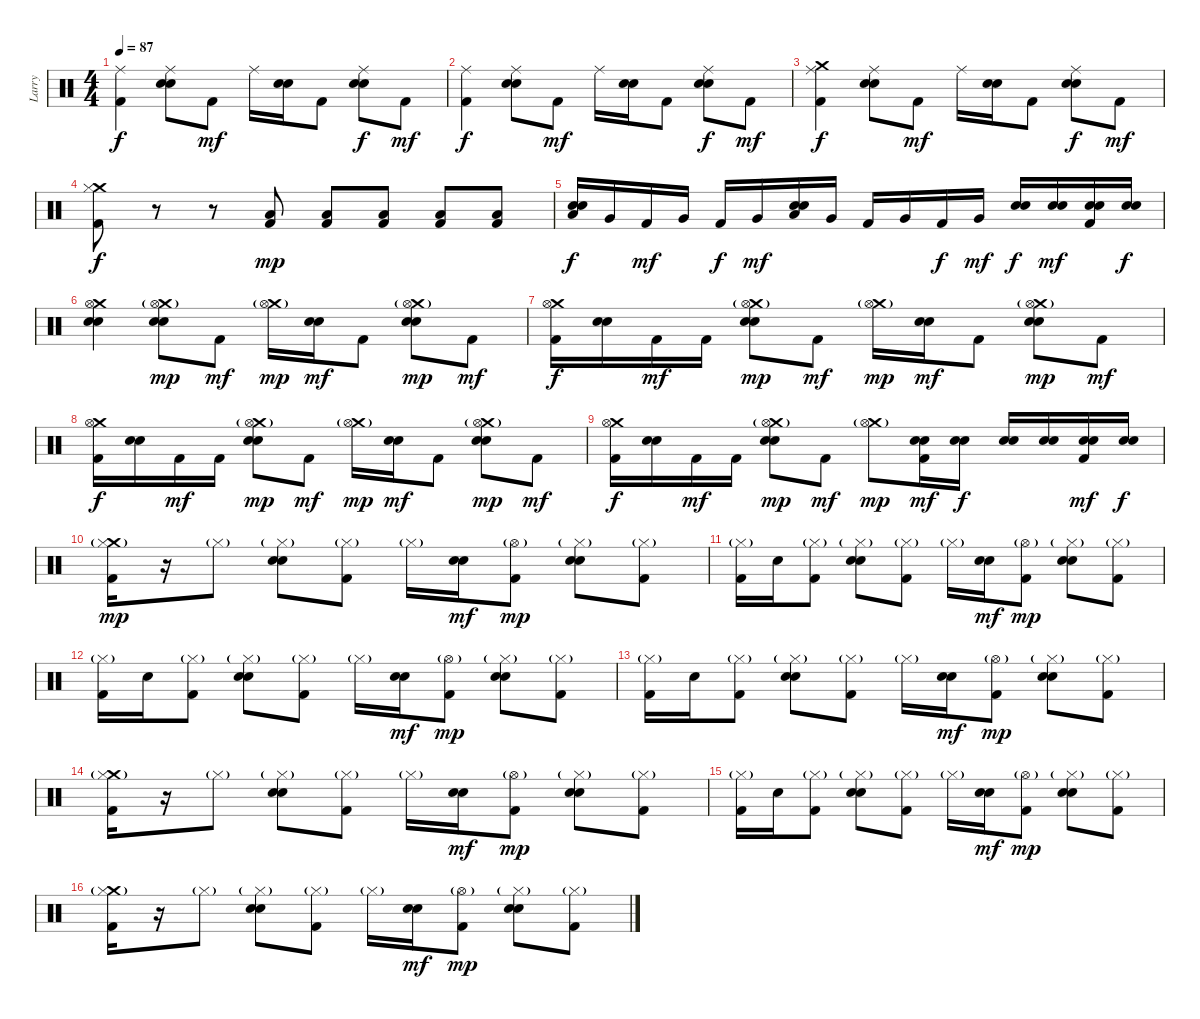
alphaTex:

\track ("Larry" "Larry") {instrument percussion}
\staff {score}
\articulation defaults
\ts (4 4)
\tempo 87
\clef neutral
\ks c
("Kick (hit) 2" "Ride (middle)").4{dy f} ("Snare (hit) 2" "Electric Snare (hit)" "Ride (middle)").8 "Kick (hit) 2".8{dy mf} "Ride (middle)".16 ("Snare (hit) 2" "Electric Snare (hit)").16 "Kick (hit) 2".8 ("Snare (hit) 2" "Electric Snare (hit)" "Ride (middle)").8{dy f} "Kick (hit) 2".8{dy mf} |
("Kick (hit) 2" "Ride (middle)").4{dy f} ("Snare (hit) 2" "Electric Snare (hit)" "Ride (middle)").8 "Kick (hit) 2".8{dy mf} "Ride (middle)".16 ("Snare (hit) 2" "Electric Snare (hit)").16 "Kick (hit) 2".8 ("Snare (hit) 2" "Electric Snare (hit)" "Ride (middle)").8{dy f} "Kick (hit) 2".8{dy mf} |
("Crash medium (hit)" "Kick (hit) 2" "Ride (middle)").4{dy f} ("Snare (hit) 2" "Electric Snare (hit)" "Ride (middle)").8 "Kick (hit) 2".8{dy mf} "Ride (middle)".16 ("Snare (hit) 2" "Electric Snare (hit)").16 "Kick (hit) 2".8 ("Snare (hit) 2" "Electric Snare (hit)" "Ride (middle)").8{dy f} "Kick (hit) 2".8{dy mf} |
("Crash medium (hit)" "Kick (hit) 2" "Hi-Hat (closed)").8{dy f} r.8 r.8 ("Low Floor Tom (hit)" "Kick (hit) 2").8{dy mp} ("Low Floor Tom (hit)" "Kick (hit) 2").8 ("Low Floor Tom (hit)" "Kick (hit) 2").8 ("Low Floor Tom (hit)" "Kick (hit) 2").8 ("Low Floor Tom (hit)" "Kick (hit) 2").8 |
("Snare (hit) 2" "Electric Snare (hit)" "Low Tom (hit)").16{dy f} "Very Low Tom (hit)".16 "Kick (hit) 2".16{dy mf} "Very Low Tom (hit)".16 "Kick (hit) 2".16{dy f} "Very Low Tom (hit)".16{dy mf} ("Snare (hit) 2" "Electric Snare (hit)" "Low Tom (hit)").16 "Very Low Tom (hit)".16 "Kick (hit) 2".16 "Very Low Tom (hit)".16 "Kick (hit) 2".16{dy f} "Very Low Tom (hit)".16{dy mf} ("Snare (hit) 2" "Electric Snare (hit)").16{dy f} ("Snare (hit) 2" "Electric Snare (hit)").16{dy mf} ("Snare (hit) 2" "Electric Snare (hit)" "Kick (hit) 2").16 ("Snare (hit) 2" "Electric Snare (hit)").16{dy f} |
("Crash medium (hit)" "Snare (hit) 2" "Electric Snare (hit)" "Hi-Hat (open)").4 ("Crash medium (hit)"{g} "Snare (hit) 2" "Electric Snare (hit)" "Hi-Hat (open)"{g}).8{dy mp} "Kick (hit) 2".8{dy mf} ("Crash medium (hit)"{g} "Hi-Hat (open)"{g}).16{dy mp} ("Snare (hit) 2" "Electric Snare (hit)").16{dy mf} "Kick (hit) 2".8 ("Crash medium (hit)"{g} "Snare (hit) 2" "Electric Snare (hit)" "Hi-Hat (open)"{g}).8{dy mp} "Kick (hit) 2".8{dy mf} |
("Crash medium (hit)" "Kick (hit) 2" "Hi-Hat (open)").16{dy f} ("Snare (hit) 2" "Electric Snare (hit)").16 "Kick (hit) 2".16{dy mf} "Kick (hit) 2".16 ("Crash medium (hit)"{g} "Snare (hit) 2" "Electric Snare (hit)" "Hi-Hat (open)"{g}).8{dy mp} "Kick (hit) 2".8{dy mf} ("Crash medium (hit)"{g} "Hi-Hat (open)"{g}).16{dy mp} ("Snare (hit) 2" "Electric Snare (hit)").16{dy mf} "Kick (hit) 2".8 ("Crash medium (hit)"{g} "Snare (hit) 2" "Electric Snare (hit)" "Hi-Hat (open)"{g}).8{dy mp} "Kick (hit) 2".8{dy mf} |
("Crash medium (hit)" "Kick (hit) 2" "Hi-Hat (open)").16{dy f} ("Snare (hit) 2" "Electric Snare (hit)").16 "Kick (hit) 2".16{dy mf} "Kick (hit) 2".16 ("Crash medium (hit)"{g} "Snare (hit) 2" "Electric Snare (hit)" "Hi-Hat (open)"{g}).8{dy mp} "Kick (hit) 2".8{dy mf} ("Crash medium (hit)"{g} "Hi-Hat (open)"{g}).16{dy mp} ("Snare (hit) 2" "Electric Snare (hit)").16{dy mf} "Kick (hit) 2".8 ("Crash medium (hit)"{g} "Snare (hit) 2" "Electric Snare (hit)" "Hi-Hat (open)"{g}).8{dy mp} "Kick (hit) 2".8{dy mf} |
("Crash medium (hit)" "Kick (hit) 2" "Hi-Hat (open)").16{dy f} ("Snare (hit) 2" "Electric Snare (hit)").16 "Kick (hit) 2".16{dy mf} "Kick (hit) 2".16 ("Crash medium (hit)"{g} "Snare (hit) 2" "Electric Snare (hit)" "Hi-Hat (open)"{g}).8{dy mp} "Kick (hit) 2".8{dy mf} ("Crash medium (hit)"{g} "Hi-Hat (open)"{g}).8{dy mp} ("Snare (hit) 2" "Electric Snare (hit)" "Kick (hit) 2").16{dy mf} ("Snare (hit) 2" "Electric Snare (hit)").16{dy f} ("Snare (hit) 2" "Electric Snare (hit)").16 ("Snare (hit) 2" "Electric Snare (hit)").16 ("Snare (hit) 2" "Electric Snare (hit)" "Kick (hit) 2").16{dy mf} ("Snare (hit) 2" "Electric Snare (hit)").16{dy f} |
("Crash medium (hit)" "Kick (hit) 2" "Hi-Hat (closed)"{g}).16{dy mp} r.16 "Hi-Hat (closed)"{g}.8 ("Snare (hit) 2" "Electric Snare (hit)" "Hi-Hat (closed)"{g}).8 ("Kick (hit) 2" "Hi-Hat (closed)"{g}).8 "Hi-Hat (closed)"{g}.16 ("Snare (hit) 2" "Electric Snare (hit)").16{dy mf} ("Kick (hit) 2" "Hi-Hat (open)"{g}).8{dy mp} ("Snare (hit) 2" "Electric Snare (hit)" "Hi-Hat (closed)"{g}).8 ("Kick (hit) 2" "Hi-Hat (closed)"{g}).8 |
("Kick (hit) 2" "Hi-Hat (closed)"{g}).16 "Electric Snare (hit)".16 ("Kick (hit) 2" "Hi-Hat (closed)"{g}).8 ("Snare (hit) 2" "Electric Snare (hit)" "Hi-Hat (closed)"{g}).8 ("Kick (hit) 2" "Hi-Hat (closed)"{g}).8 "Hi-Hat (closed)"{g}.16 ("Snare (hit) 2" "Electric Snare (hit)").16{dy mf} ("Kick (hit) 2" "Hi-Hat (open)"{g}).8{dy mp} ("Snare (hit) 2" "Electric Snare (hit)" "Hi-Hat (closed)"{g}).8 ("Kick (hit) 2" "Hi-Hat (closed)"{g}).8 |
("Kick (hit) 2" "Hi-Hat (closed)"{g}).16 "Electric Snare (hit)".16 ("Kick (hit) 2" "Hi-Hat (closed)"{g}).8 ("Snare (hit) 2" "Electric Snare (hit)" "Hi-Hat (closed)"{g}).8 ("Kick (hit) 2" "Hi-Hat (closed)"{g}).8 "Hi-Hat (closed)"{g}.16 ("Snare (hit) 2" "Electric Snare (hit)").16{dy mf} ("Kick (hit) 2" "Hi-Hat (open)"{g}).8{dy mp} ("Snare (hit) 2" "Electric Snare (hit)" "Hi-Hat (closed)"{g}).8 ("Kick (hit) 2" "Hi-Hat (closed)"{g}).8 |
("Kick (hit) 2" "Hi-Hat (closed)"{g}).16 "Electric Snare (hit)".16 ("Kick (hit) 2" "Hi-Hat (closed)"{g}).8 ("Snare (hit) 2" "Electric Snare (hit)" "Hi-Hat (closed)"{g}).8 ("Kick (hit) 2" "Hi-Hat (closed)"{g}).8 "Hi-Hat (closed)"{g}.16 ("Snare (hit) 2" "Electric Snare (hit)").16{dy mf} ("Kick (hit) 2" "Hi-Hat (open)"{g}).8{dy mp} ("Snare (hit) 2" "Electric Snare (hit)" "Hi-Hat (closed)"{g}).8 ("Kick (hit) 2" "Hi-Hat (closed)"{g}).8 |
("Crash medium (hit)" "Kick (hit) 2" "Hi-Hat (closed)"{g}).16 r.16 "Hi-Hat (closed)"{g}.8 ("Snare (hit) 2" "Electric Snare (hit)" "Hi-Hat (closed)"{g}).8 ("Kick (hit) 2" "Hi-Hat (closed)"{g}).8 "Hi-Hat (closed)"{g}.16 ("Snare (hit) 2" "Electric Snare (hit)").16{dy mf} ("Kick (hit) 2" "Hi-Hat (open)"{g}).8{dy mp} ("Snare (hit) 2" "Electric Snare (hit)" "Hi-Hat (closed)"{g}).8 ("Kick (hit) 2" "Hi-Hat (closed)"{g}).8 |
("Kick (hit) 2" "Hi-Hat (closed)"{g}).16 "Electric Snare (hit)".16 ("Kick (hit) 2" "Hi-Hat (closed)"{g}).8 ("Snare (hit) 2" "Electric Snare (hit)" "Hi-Hat (closed)"{g}).8 ("Kick (hit) 2" "Hi-Hat (closed)"{g}).8 "Hi-Hat (closed)"{g}.16 ("Snare (hit) 2" "Electric Snare (hit)").16{dy mf} ("Kick (hit) 2" "Hi-Hat (open)"{g}).8{dy mp} ("Snare (hit) 2" "Electric Snare (hit)" "Hi-Hat (closed)"{g}).8 ("Kick (hit) 2" "Hi-Hat (closed)"{g}).8 |
("Crash medium (hit)" "Kick (hit) 2" "Hi-Hat (closed)"{g}).16 r.16 "Hi-Hat (closed)"{g}.8 ("Snare (hit) 2" "Electric Snare (hit)" "Hi-Hat (closed)"{g}).8 ("Kick (hit) 2" "Hi-Hat (closed)"{g}).8 "Hi-Hat (closed)"{g}.16 ("Snare (hit) 2" "Electric Snare (hit)").16{dy mf} ("Kick (hit) 2" "Hi-Hat (open)"{g}).8{dy mp} ("Snare (hit) 2" "Electric Snare (hit)" "Hi-Hat (closed)"{g}).8 ("Kick (hit) 2" "Hi-Hat (closed)"{g}).8
